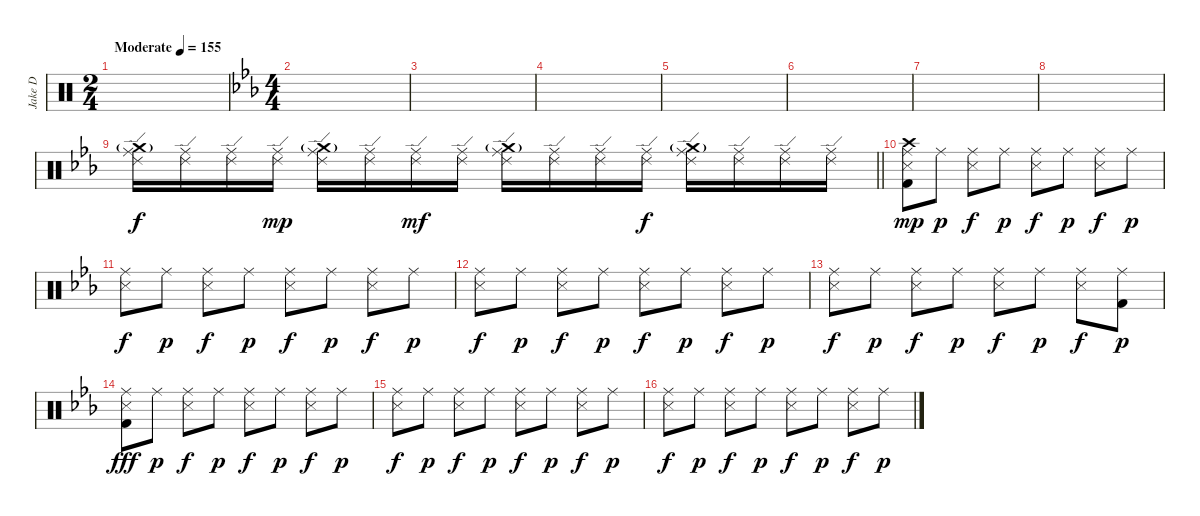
\track ("Jake D" "Jake D") {instrument percussion}
\staff {score}
\articulation defaults
\ts (2 4)
\tempo (155 "Moderate")
\clef neutral
\ks c
|
\ts (4 4)
\ks cminor
|
|
|
|
|
|
|
\barLineRight lightlight
("Crash medium (hit)"{g} "Ride (edge) 2" "Ride (middle)").16 ("Ride (edge) 2" "Ride (middle)").16 ("Ride (edge) 2" "Ride (middle)").16 ("Ride (edge) 2" "Ride (middle)").16{dy mp} ("Crash medium (hit)"{g} "Ride (edge) 2" "Ride (middle)").16 ("Ride (edge) 2" "Ride (middle)").16 ("Ride (edge) 2" "Ride (middle)").16{dy mf} ("Ride (edge) 2" "Ride (middle)").16 ("Crash medium (hit)"{g} "Ride (edge) 2" "Ride (middle)").16 ("Ride (edge) 2" "Ride (middle)").16 ("Ride (edge) 2" "Ride (middle)").16 ("Ride (edge) 2" "Ride (middle)").16{dy f} ("Crash medium (hit)"{g} "Ride (edge) 2" "Ride (middle)").16 ("Ride (edge) 2" "Ride (middle)").16 ("Ride (edge) 2" "Ride (middle)").16 ("Ride (edge) 2" "Ride (middle)").16 |
("Crash high (hit)" "Ride (middle)" "Snare (side stick) 3" "Kick (hit) 2").8{dy mp} "Ride (middle)".8{dy p} ("Ride (middle)" "Snare (side stick) 3").8{dy f} "Ride (middle)".8{dy p} ("Ride (middle)" "Snare (side stick) 3").8{dy f} "Ride (middle)".8{dy p} ("Ride (middle)" "Snare (side stick) 3").8{dy f} "Ride (middle)".8{dy p} |
("Ride (middle)" "Snare (side stick) 3").8{dy f} "Ride (middle)".8{dy p} ("Ride (middle)" "Snare (side stick) 3").8{dy f} "Ride (middle)".8{dy p} ("Ride (middle)" "Snare (side stick) 3").8{dy f} "Ride (middle)".8{dy p} ("Ride (middle)" "Snare (side stick) 3").8{dy f} "Ride (middle)".8{dy p} |
("Ride (middle)" "Snare (side stick) 3").8{dy f} "Ride (middle)".8{dy p} ("Ride (middle)" "Snare (side stick) 3").8{dy f} "Ride (middle)".8{dy p} ("Ride (middle)" "Snare (side stick) 3").8{dy f} "Ride (middle)".8{dy p} ("Ride (middle)" "Snare (side stick) 3").8{dy f} "Ride (middle)".8{dy p} |
("Ride (middle)" "Snare (side stick) 3").8{dy f} "Ride (middle)".8{dy p} ("Ride (middle)" "Snare (side stick) 3").8{dy f} "Ride (middle)".8{dy p} ("Ride (middle)" "Snare (side stick) 3").8{dy f} "Ride (middle)".8{dy p} ("Ride (middle)" "Snare (side stick) 3").8{dy f} ("Ride (middle)" "Kick (hit) 2").8{dy p} |
("Ride (middle)" "Snare (side stick) 3" "Kick (hit) 2").8{dy fff} "Ride (middle)".8{dy p} ("Ride (middle)" "Snare (side stick) 3").8{dy f} "Ride (middle)".8{dy p} ("Ride (middle)" "Snare (side stick) 3").8{dy f} "Ride (middle)".8{dy p} ("Ride (middle)" "Snare (side stick) 3").8{dy f} "Ride (middle)".8{dy p} |
("Ride (middle)" "Snare (side stick) 3").8{dy f} "Ride (middle)".8{dy p} ("Ride (middle)" "Snare (side stick) 3").8{dy f} "Ride (middle)".8{dy p} ("Ride (middle)" "Snare (side stick) 3").8{dy f} "Ride (middle)".8{dy p} ("Ride (middle)" "Snare (side stick) 3").8{dy f} "Ride (middle)".8{dy p} |
("Ride (middle)" "Snare (side stick) 3").8{dy f} "Ride (middle)".8{dy p} ("Ride (middle)" "Snare (side stick) 3").8{dy f} "Ride (middle)".8{dy p} ("Ride (middle)" "Snare (side stick) 3").8{dy f} "Ride (middle)".8{dy p} ("Ride (middle)" "Snare (side stick) 3").8{dy f} "Ride (middle)".8{dy p}
